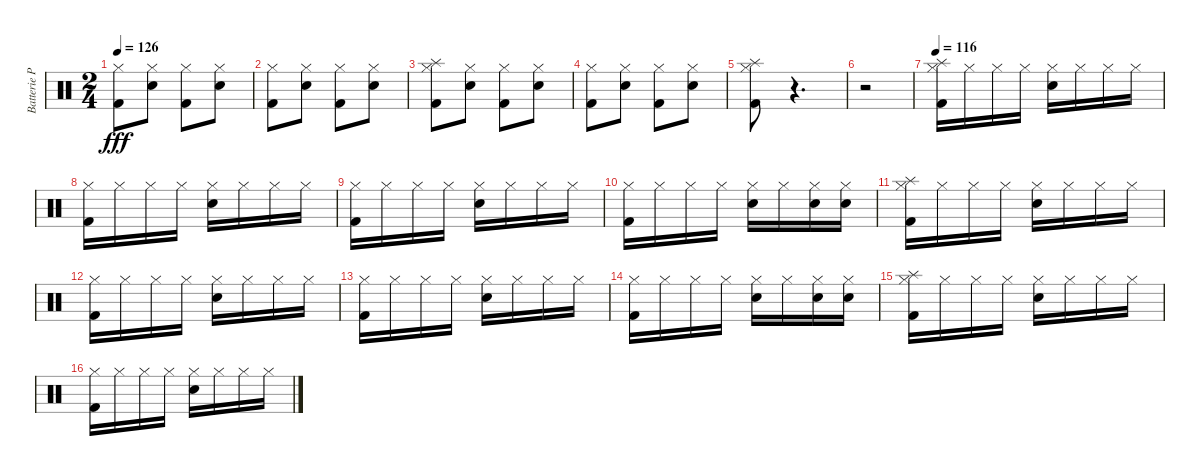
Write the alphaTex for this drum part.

\track ("Batterie Pako" "Batterie P") {instrument percussion}
\staff {score}
\articulation defaults
\ts (2 4)
\tempo 126
\clef neutral
\ks c
("Hi-Hat (closed)" "Kick (hit) 2").8{dy fff} ("Hi-Hat (closed)" "Electric Snare (hit)").8 ("Hi-Hat (closed)" "Kick (hit) 2").8 ("Hi-Hat (closed)" "Electric Snare (hit)").8 |
("Hi-Hat (closed)" "Kick (hit) 2").8 ("Hi-Hat (closed)" "Electric Snare (hit)").8 ("Hi-Hat (closed)" "Kick (hit) 2").8 ("Hi-Hat (closed)" "Electric Snare (hit)").8 |
("Splash (hit)" "Hi-Hat (closed)" "Kick (hit) 2").8 ("Hi-Hat (closed)" "Electric Snare (hit)").8 ("Hi-Hat (closed)" "Kick (hit) 2").8 ("Hi-Hat (closed)" "Electric Snare (hit)").8 |
("Hi-Hat (closed)" "Kick (hit) 2").8 ("Hi-Hat (closed)" "Electric Snare (hit)").8 ("Hi-Hat (closed)" "Kick (hit) 2").8 ("Hi-Hat (closed)" "Electric Snare (hit)").8 |
("Splash (hit)" "Hi-Hat (closed)" "Kick (hit) 2").8 r.4{d} |
r.2 |
\tempo 116
("Kick (hit) 2" "Hi-Hat (closed)" "Splash (hit)").16 "Hi-Hat (closed)".16 "Hi-Hat (closed)".16 "Hi-Hat (closed)".16 ("Hi-Hat (closed)" "Electric Snare (hit)").16 "Hi-Hat (closed)".16 "Hi-Hat (closed)".16 "Hi-Hat (closed)".16 |
("Kick (hit) 2" "Hi-Hat (closed)").16 "Hi-Hat (closed)".16 "Hi-Hat (closed)".16 "Hi-Hat (closed)".16 ("Hi-Hat (closed)" "Electric Snare (hit)").16 "Hi-Hat (closed)".16 "Hi-Hat (closed)".16 "Hi-Hat (closed)".16 |
("Kick (hit) 2" "Hi-Hat (closed)").16 "Hi-Hat (closed)".16 "Hi-Hat (closed)".16 "Hi-Hat (closed)".16 ("Hi-Hat (closed)" "Electric Snare (hit)").16 "Hi-Hat (closed)".16 "Hi-Hat (closed)".16 "Hi-Hat (closed)".16 |
("Kick (hit) 2" "Hi-Hat (closed)").16 "Hi-Hat (closed)".16 "Hi-Hat (closed)".16 "Hi-Hat (closed)".16 ("Electric Snare (hit)" "Hi-Hat (closed)").16 "Hi-Hat (closed)".16 ("Electric Snare (hit)" "Hi-Hat (closed)").16 ("Electric Snare (hit)" "Hi-Hat (closed)").16 |
("Kick (hit) 2" "Hi-Hat (closed)" "Splash (hit)").16 "Hi-Hat (closed)".16 "Hi-Hat (closed)".16 "Hi-Hat (closed)".16 ("Hi-Hat (closed)" "Electric Snare (hit)").16 "Hi-Hat (closed)".16 "Hi-Hat (closed)".16 "Hi-Hat (closed)".16 |
("Kick (hit) 2" "Hi-Hat (closed)").16 "Hi-Hat (closed)".16 "Hi-Hat (closed)".16 "Hi-Hat (closed)".16 ("Hi-Hat (closed)" "Electric Snare (hit)").16 "Hi-Hat (closed)".16 "Hi-Hat (closed)".16 "Hi-Hat (closed)".16 |
("Kick (hit) 2" "Hi-Hat (closed)").16 "Hi-Hat (closed)".16 "Hi-Hat (closed)".16 "Hi-Hat (closed)".16 ("Hi-Hat (closed)" "Electric Snare (hit)").16 "Hi-Hat (closed)".16 "Hi-Hat (closed)".16 "Hi-Hat (closed)".16 |
("Kick (hit) 2" "Hi-Hat (closed)").16 "Hi-Hat (closed)".16 "Hi-Hat (closed)".16 "Hi-Hat (closed)".16 ("Electric Snare (hit)" "Hi-Hat (closed)").16 "Hi-Hat (closed)".16 ("Electric Snare (hit)" "Hi-Hat (closed)").16 ("Electric Snare (hit)" "Hi-Hat (closed)").16 |
("Kick (hit) 2" "Hi-Hat (closed)" "Splash (hit)").16 "Hi-Hat (closed)".16 "Hi-Hat (closed)".16 "Hi-Hat (closed)".16 ("Hi-Hat (closed)" "Electric Snare (hit)").16 "Hi-Hat (closed)".16 "Hi-Hat (closed)".16 "Hi-Hat (closed)".16 |
("Kick (hit) 2" "Hi-Hat (closed)").16 "Hi-Hat (closed)".16 "Hi-Hat (closed)".16 "Hi-Hat (closed)".16 ("Hi-Hat (closed)" "Electric Snare (hit)").16 "Hi-Hat (closed)".16 "Hi-Hat (closed)".16 "Hi-Hat (closed)".16
